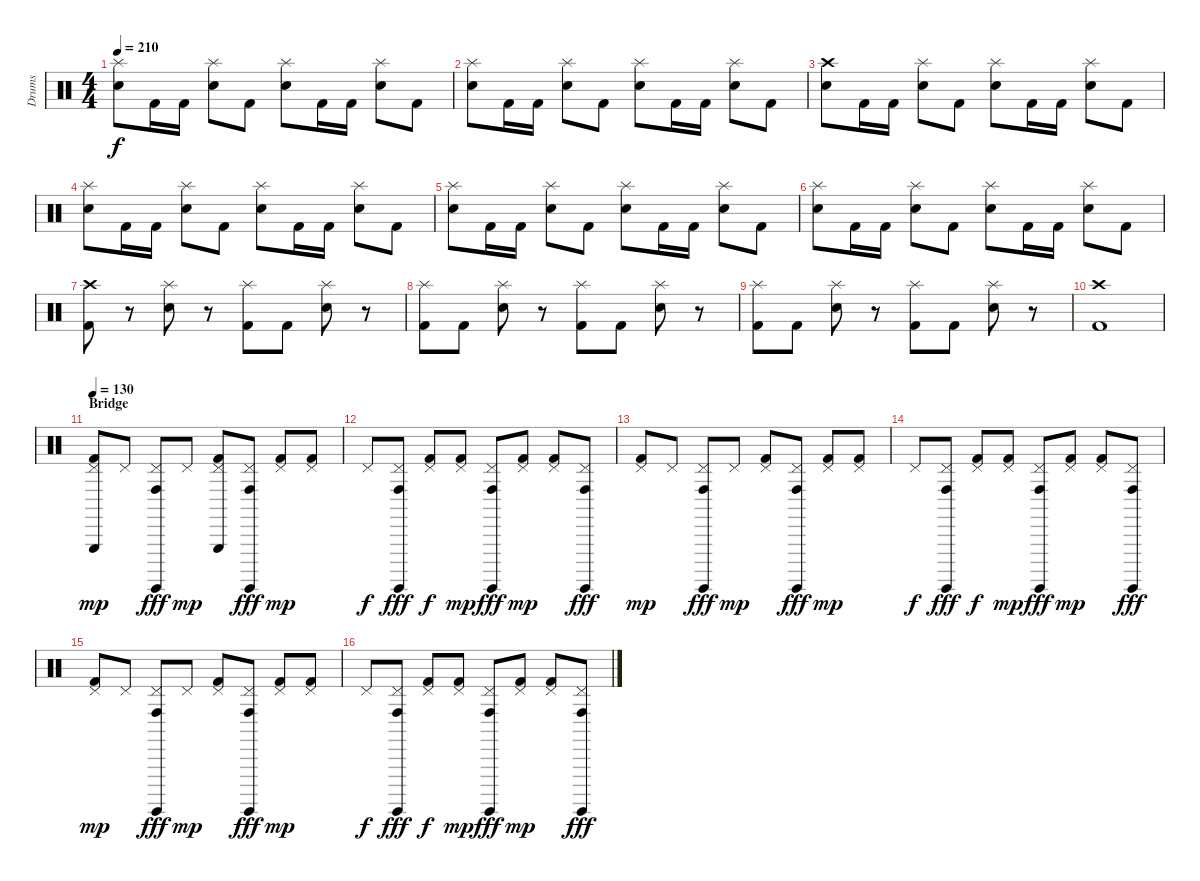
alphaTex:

\track ("Drums" "Drums") {instrument percussion}
\staff {score}
\articulation defaults
\ts (4 4)
\tempo 210
\clef neutral
\ks c
("Splash (hit)" "Electric Snare (hit)").8{dy f} "Kick (hit) 2".16 "Kick (hit) 2".16 ("Splash (hit)" "Electric Snare (hit)").8 "Kick (hit) 2".8 ("Splash (hit)" "Electric Snare (hit)").8 "Kick (hit) 2".16 "Kick (hit) 2".16 ("Splash (hit)" "Electric Snare (hit)").8 "Kick (hit) 2".8 |
("Splash (hit)" "Electric Snare (hit)").8 "Kick (hit) 2".16 "Kick (hit) 2".16 ("Splash (hit)" "Electric Snare (hit)").8 "Kick (hit) 2".8 ("Splash (hit)" "Electric Snare (hit)").8 "Kick (hit) 2".16 "Kick (hit) 2".16 ("Splash (hit)" "Electric Snare (hit)").8 "Kick (hit) 2".8 |
("Crash high (hit)" "Electric Snare (hit)").8 "Kick (hit) 2".16 "Kick (hit) 2".16 ("Splash (hit)" "Electric Snare (hit)").8 "Kick (hit) 2".8 ("Splash (hit)" "Electric Snare (hit)").8 "Kick (hit) 2".16 "Kick (hit) 2".16 ("Splash (hit)" "Electric Snare (hit)").8 "Kick (hit) 2".8 |
("Splash (hit)" "Electric Snare (hit)").8 "Kick (hit) 2".16 "Kick (hit) 2".16 ("Splash (hit)" "Electric Snare (hit)").8 "Kick (hit) 2".8 ("Splash (hit)" "Electric Snare (hit)").8 "Kick (hit) 2".16 "Kick (hit) 2".16 ("Splash (hit)" "Electric Snare (hit)").8 "Kick (hit) 2".8 |
("Splash (hit)" "Electric Snare (hit)").8 "Kick (hit) 2".16 "Kick (hit) 2".16 ("Splash (hit)" "Electric Snare (hit)").8 "Kick (hit) 2".8 ("Splash (hit)" "Electric Snare (hit)").8 "Kick (hit) 2".16 "Kick (hit) 2".16 ("Splash (hit)" "Electric Snare (hit)").8 "Kick (hit) 2".8 |
("Splash (hit)" "Electric Snare (hit)").8 "Kick (hit) 2".16 "Kick (hit) 2".16 ("Splash (hit)" "Electric Snare (hit)").8 "Kick (hit) 2".8 ("Splash (hit)" "Electric Snare (hit)").8 "Kick (hit) 2".16 "Kick (hit) 2".16 ("Splash (hit)" "Electric Snare (hit)").8 "Kick (hit) 2".8 |
("Crash high (hit)" "Kick (hit) 2").8 r.8 ("Splash (hit)" "Electric Snare (hit)").8 r.8 ("Splash (hit)" "Kick (hit) 2").8 "Kick (hit) 2".8 ("Splash (hit)" "Electric Snare (hit)").8 r.8 |
("Splash (hit)" "Kick (hit) 2").8 "Kick (hit) 2".8 ("Splash (hit)" "Electric Snare (hit)").8 r.8 ("Splash (hit)" "Kick (hit) 2").8 "Kick (hit) 2".8 ("Splash (hit)" "Electric Snare (hit)").8 r.8 |
("Splash (hit)" "Kick (hit) 2").8 "Kick (hit) 2".8 ("Splash (hit)" "Electric Snare (hit)").8 r.8 ("Splash (hit)" "Kick (hit) 2").8 "Kick (hit) 2".8 ("Splash (hit)" "Electric Snare (hit)").8 r.8 |
("Crash high (hit)" "Kick (hit) 2").1 |
\section ("" "Bridge")
\tempo 130
("Pedal Hi-Hat (hit)" "Triangle (hit)" "Kick (hit) 2").8{dy mp} "Pedal Hi-Hat (hit)".8 ("Pedal Hi-Hat (hit)" "Surdo (hit)" "Conga high (hit)").8{dy fff} "Pedal Hi-Hat (hit)".8{dy mp} ("Pedal Hi-Hat (hit)" "Triangle (hit)" "Kick (hit) 2").8 ("Pedal Hi-Hat (hit)" "Surdo (hit)" "Conga high (hit)").8{dy fff} ("Pedal Hi-Hat (hit)" "Kick (hit) 2").8{dy mp} ("Pedal Hi-Hat (hit)" "Kick (hit) 2").8 |
"Pedal Hi-Hat (hit)".8{dy f} ("Pedal Hi-Hat (hit)" "Surdo (hit)" "Conga high (hit)").8{dy fff} ("Pedal Hi-Hat (hit)" "Kick (hit) 2").8{dy f} ("Pedal Hi-Hat (hit)" "Kick (hit) 2").8{dy mp} ("Pedal Hi-Hat (hit)" "Surdo (hit)" "Conga high (hit)").8{dy fff} ("Pedal Hi-Hat (hit)" "Kick (hit) 2").8{dy mp} ("Pedal Hi-Hat (hit)" "Kick (hit) 2").8 ("Pedal Hi-Hat (hit)" "Surdo (hit)" "Conga high (hit)").8{dy fff} |
("Pedal Hi-Hat (hit)" "Kick (hit) 2").8{dy mp} "Pedal Hi-Hat (hit)".8 ("Pedal Hi-Hat (hit)" "Surdo (hit)" "Conga high (hit)").8{dy fff} "Pedal Hi-Hat (hit)".8{dy mp} ("Pedal Hi-Hat (hit)" "Kick (hit) 2").8 ("Pedal Hi-Hat (hit)" "Surdo (hit)" "Conga high (hit)").8{dy fff} ("Pedal Hi-Hat (hit)" "Kick (hit) 2").8{dy mp} ("Pedal Hi-Hat (hit)" "Kick (hit) 2").8 |
"Pedal Hi-Hat (hit)".8{dy f} ("Pedal Hi-Hat (hit)" "Surdo (hit)" "Conga high (hit)").8{dy fff} ("Pedal Hi-Hat (hit)" "Kick (hit) 2").8{dy f} ("Pedal Hi-Hat (hit)" "Kick (hit) 2").8{dy mp} ("Pedal Hi-Hat (hit)" "Surdo (hit)" "Conga high (hit)").8{dy fff} ("Pedal Hi-Hat (hit)" "Kick (hit) 2").8{dy mp} ("Pedal Hi-Hat (hit)" "Kick (hit) 2").8 ("Pedal Hi-Hat (hit)" "Surdo (hit)" "Conga high (hit)").8{dy fff} |
("Pedal Hi-Hat (hit)" "Kick (hit) 2").8{dy mp} "Pedal Hi-Hat (hit)".8 ("Pedal Hi-Hat (hit)" "Surdo (hit)" "Conga high (hit)").8{dy fff} "Pedal Hi-Hat (hit)".8{dy mp} ("Pedal Hi-Hat (hit)" "Kick (hit) 2").8 ("Pedal Hi-Hat (hit)" "Surdo (hit)" "Conga high (hit)").8{dy fff} ("Pedal Hi-Hat (hit)" "Kick (hit) 2").8{dy mp} ("Pedal Hi-Hat (hit)" "Kick (hit) 2").8 |
"Pedal Hi-Hat (hit)".8{dy f} ("Pedal Hi-Hat (hit)" "Surdo (hit)" "Conga high (hit)").8{dy fff} ("Pedal Hi-Hat (hit)" "Kick (hit) 2").8{dy f} ("Pedal Hi-Hat (hit)" "Kick (hit) 2").8{dy mp} ("Pedal Hi-Hat (hit)" "Surdo (hit)" "Conga high (hit)").8{dy fff} ("Pedal Hi-Hat (hit)" "Kick (hit) 2").8{dy mp} ("Pedal Hi-Hat (hit)" "Kick (hit) 2").8 ("Pedal Hi-Hat (hit)" "Surdo (hit)" "Conga high (hit)").8{dy fff}
